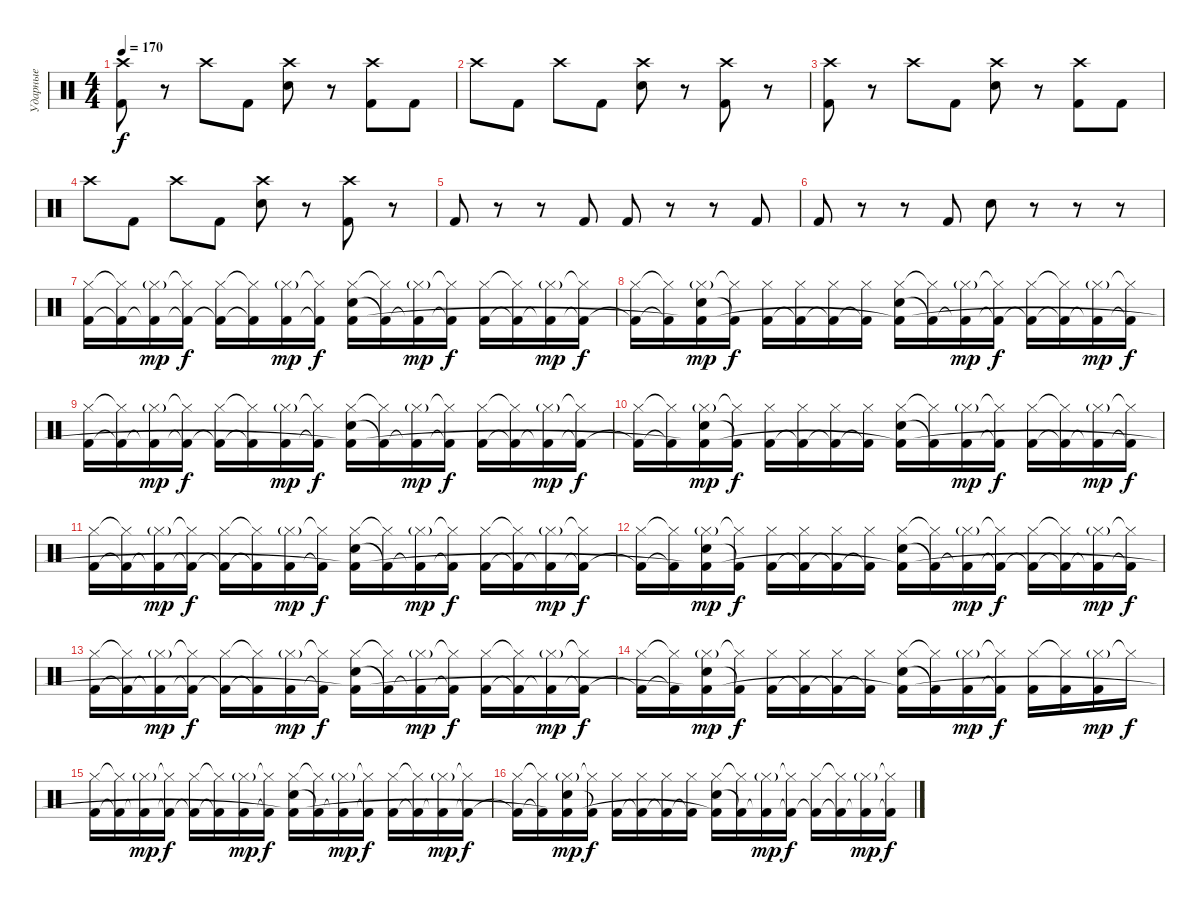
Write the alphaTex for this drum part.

\track ("Ударные" "Ударные") {instrument percussion}
\staff
\articulation defaults
\ts (4 4)
\tempo 170
\clef neutral
\ks c
("Crash high (hit)" "Kick (hit) 2").8{dy f} r.8 "Crash high (hit)".8 "Kick (hit) 2".8 ("Crash high (hit)" "Electric Snare (hit)").8 r.8 ("Crash high (hit)" "Kick (hit) 2").8 "Kick (hit) 2".8 |
"Crash high (hit)".8 "Kick (hit) 2".8 "Crash high (hit)".8 "Kick (hit) 2".8 ("Crash high (hit)" "Electric Snare (hit)").8 r.8 ("Crash high (hit)" "Kick (hit) 2").8 r.8 |
("Crash high (hit)" "Kick (hit) 2").8 r.8 "Crash high (hit)".8 "Kick (hit) 2".8 ("Crash high (hit)" "Electric Snare (hit)").8 r.8 ("Crash high (hit)" "Kick (hit) 2").8 "Kick (hit) 2".8 |
"Crash high (hit)".8 "Kick (hit) 2".8 "Crash high (hit)".8 "Kick (hit) 2".8 ("Crash high (hit)" "Electric Snare (hit)").8 r.8 ("Crash high (hit)" "Kick (hit) 2").8 r.8 |
"Kick (hit) 2".8 r.8 r.8 "Kick (hit) 2".8 "Kick (hit) 2".8 r.8 r.8 "Kick (hit) 2".8 |
"Kick (hit) 2".8 r.8 r.8 "Kick (hit) 2".8 "Electric Snare (hit)".8 r.8 r.8 r.8 |
("Hi-Hat (closed)" "Kick (hit) 2").16 ("Hi-Hat (closed)"{t} "Kick (hit) 2"{t}).16 ("Hi-Hat (closed)"{g} "Kick (hit) 2"{t}).16{dy mp} ("Hi-Hat (closed)"{t} "Kick (hit) 2"{t}).16{dy f} ("Hi-Hat (closed)" "Kick (hit) 2"{t}).16 ("Hi-Hat (closed)"{t} "Kick (hit) 2"{t}).16 ("Hi-Hat (closed)"{g} "Kick (hit) 2").16{dy mp} ("Hi-Hat (closed)"{t} "Kick (hit) 2"{t}).16{dy f} ("Hi-Hat (closed)" "Electric Snare (hit)" "Kick (hit) 2").16 ("Hi-Hat (closed)"{t} "Kick (hit) 2"{t}).16 ("Hi-Hat (closed)"{g} "Kick (hit) 2"{t}).16{dy mp} ("Hi-Hat (closed)"{t} "Kick (hit) 2"{t}).16{dy f} ("Hi-Hat (closed)" "Kick (hit) 2").16 ("Hi-Hat (closed)"{t} "Kick (hit) 2"{t}).16 ("Hi-Hat (closed)"{g} "Kick (hit) 2"{t}).16{dy mp} ("Hi-Hat (closed)"{t} "Kick (hit) 2"{t}).16{dy f} |
("Hi-Hat (closed)" "Kick (hit) 2"{t}).16 ("Hi-Hat (closed)"{t} "Kick (hit) 2"{t}).16 ("Hi-Hat (closed)"{g} "Electric Snare (hit)" "Kick (hit) 2"{t}).16{dy mp} ("Hi-Hat (closed)"{t} "Kick (hit) 2"{t}).16{dy f} ("Hi-Hat (closed)" "Kick (hit) 2").16 ("Hi-Hat (closed)" "Kick (hit) 2"{t}).16 ("Hi-Hat (closed)" "Kick (hit) 2"{t}).16 ("Hi-Hat (closed)" "Kick (hit) 2"{t}).16 ("Hi-Hat (closed)" "Electric Snare (hit)" "Kick (hit) 2"{t}).16 ("Hi-Hat (closed)"{t} "Kick (hit) 2"{t}).16 ("Hi-Hat (closed)"{g} "Kick (hit) 2"{t}).16{dy mp} ("Hi-Hat (closed)"{t} "Kick (hit) 2"{t}).16{dy f} ("Hi-Hat (closed)" "Kick (hit) 2"{t}).16 ("Hi-Hat (closed)"{t} "Kick (hit) 2"{t}).16 ("Hi-Hat (closed)"{g} "Kick (hit) 2"{t}).16{dy mp} ("Hi-Hat (closed)"{t} "Kick (hit) 2"{t}).16{dy f} |
("Hi-Hat (closed)" "Kick (hit) 2").16 ("Hi-Hat (closed)"{t} "Kick (hit) 2"{t}).16 ("Hi-Hat (closed)"{g} "Kick (hit) 2"{t}).16{dy mp} ("Hi-Hat (closed)"{t} "Kick (hit) 2"{t}).16{dy f} ("Hi-Hat (closed)" "Kick (hit) 2"{t}).16 ("Hi-Hat (closed)"{t} "Kick (hit) 2"{t}).16 ("Hi-Hat (closed)"{g} "Kick (hit) 2").16{dy mp} ("Hi-Hat (closed)"{t} "Kick (hit) 2"{t}).16{dy f} ("Hi-Hat (closed)" "Electric Snare (hit)" "Kick (hit) 2"{t}).16 ("Hi-Hat (closed)"{t} "Kick (hit) 2"{t}).16 ("Hi-Hat (closed)"{g} "Kick (hit) 2"{t}).16{dy mp} ("Hi-Hat (closed)"{t} "Kick (hit) 2"{t}).16{dy f} ("Hi-Hat (closed)" "Kick (hit) 2").16 ("Hi-Hat (closed)"{t} "Kick (hit) 2"{t}).16 ("Hi-Hat (closed)"{g} "Kick (hit) 2"{t}).16{dy mp} ("Hi-Hat (closed)"{t} "Kick (hit) 2"{t}).16{dy f} |
("Hi-Hat (closed)" "Kick (hit) 2"{t}).16 ("Hi-Hat (closed)"{t} "Kick (hit) 2"{t}).16 ("Hi-Hat (closed)"{g} "Electric Snare (hit)" "Kick (hit) 2"{t}).16{dy mp} ("Hi-Hat (closed)"{t} "Kick (hit) 2"{t}).16{dy f} ("Hi-Hat (closed)" "Kick (hit) 2").16 ("Hi-Hat (closed)" "Kick (hit) 2"{t}).16 ("Hi-Hat (closed)" "Kick (hit) 2"{t}).16 ("Hi-Hat (closed)" "Kick (hit) 2"{t}).16 ("Hi-Hat (closed)" "Electric Snare (hit)" "Kick (hit) 2"{t}).16 ("Hi-Hat (closed)"{t} "Kick (hit) 2"{t}).16 ("Hi-Hat (closed)"{g} "Kick (hit) 2").16{dy mp} ("Hi-Hat (closed)"{t} "Kick (hit) 2"{t}).16{dy f} ("Hi-Hat (closed)" "Kick (hit) 2").16 ("Hi-Hat (closed)"{t} "Kick (hit) 2"{t}).16 ("Hi-Hat (closed)"{g} "Kick (hit) 2"{t}).16{dy mp} ("Hi-Hat (closed)"{t} "Kick (hit) 2"{t}).16{dy f} |
("Hi-Hat (closed)" "Kick (hit) 2").16 ("Hi-Hat (closed)"{t} "Kick (hit) 2"{t}).16 ("Hi-Hat (closed)"{g} "Kick (hit) 2"{t}).16{dy mp} ("Hi-Hat (closed)"{t} "Kick (hit) 2"{t}).16{dy f} ("Hi-Hat (closed)" "Kick (hit) 2"{t}).16 ("Hi-Hat (closed)"{t} "Kick (hit) 2"{t}).16 ("Hi-Hat (closed)"{g} "Kick (hit) 2").16{dy mp} ("Hi-Hat (closed)"{t} "Kick (hit) 2"{t}).16{dy f} ("Hi-Hat (closed)" "Electric Snare (hit)" "Kick (hit) 2"{t}).16 ("Hi-Hat (closed)"{t} "Kick (hit) 2"{t}).16 ("Hi-Hat (closed)"{g} "Kick (hit) 2"{t}).16{dy mp} ("Hi-Hat (closed)"{t} "Kick (hit) 2"{t}).16{dy f} ("Hi-Hat (closed)" "Kick (hit) 2").16 ("Hi-Hat (closed)"{t} "Kick (hit) 2"{t}).16 ("Hi-Hat (closed)"{g} "Kick (hit) 2"{t}).16{dy mp} ("Hi-Hat (closed)"{t} "Kick (hit) 2"{t}).16{dy f} |
("Hi-Hat (closed)" "Kick (hit) 2"{t}).16 ("Hi-Hat (closed)"{t} "Kick (hit) 2"{t}).16 ("Hi-Hat (closed)"{g} "Electric Snare (hit)" "Kick (hit) 2"{t}).16{dy mp} ("Hi-Hat (closed)"{t} "Kick (hit) 2"{t}).16{dy f} ("Hi-Hat (closed)" "Kick (hit) 2").16 ("Hi-Hat (closed)" "Kick (hit) 2"{t}).16 ("Hi-Hat (closed)" "Kick (hit) 2"{t}).16 ("Hi-Hat (closed)" "Kick (hit) 2"{t}).16 ("Hi-Hat (closed)" "Electric Snare (hit)" "Kick (hit) 2"{t}).16 ("Hi-Hat (closed)"{t} "Kick (hit) 2"{t}).16 ("Hi-Hat (closed)"{g} "Kick (hit) 2"{t}).16{dy mp} ("Hi-Hat (closed)"{t} "Kick (hit) 2"{t}).16{dy f} ("Hi-Hat (closed)" "Kick (hit) 2"{t}).16 ("Hi-Hat (closed)"{t} "Kick (hit) 2"{t}).16 ("Hi-Hat (closed)"{g} "Kick (hit) 2"{t}).16{dy mp} ("Hi-Hat (closed)"{t} "Kick (hit) 2"{t}).16{dy f} |
("Hi-Hat (closed)" "Kick (hit) 2").16 ("Hi-Hat (closed)"{t} "Kick (hit) 2"{t}).16 ("Hi-Hat (closed)"{g} "Kick (hit) 2"{t}).16{dy mp} ("Hi-Hat (closed)"{t} "Kick (hit) 2"{t}).16{dy f} ("Hi-Hat (closed)" "Kick (hit) 2"{t}).16 ("Hi-Hat (closed)"{t} "Kick (hit) 2"{t}).16 ("Hi-Hat (closed)"{g} "Kick (hit) 2").16{dy mp} ("Hi-Hat (closed)"{t} "Kick (hit) 2"{t}).16{dy f} ("Hi-Hat (closed)" "Electric Snare (hit)" "Kick (hit) 2"{t}).16 ("Hi-Hat (closed)"{t} "Kick (hit) 2"{t}).16 ("Hi-Hat (closed)"{g} "Kick (hit) 2"{t}).16{dy mp} ("Hi-Hat (closed)"{t} "Kick (hit) 2"{t}).16{dy f} ("Hi-Hat (closed)" "Kick (hit) 2").16 ("Hi-Hat (closed)"{t} "Kick (hit) 2"{t}).16 ("Hi-Hat (closed)"{g} "Kick (hit) 2"{t}).16{dy mp} ("Hi-Hat (closed)"{t} "Kick (hit) 2"{t}).16{dy f} |
("Hi-Hat (closed)" "Kick (hit) 2"{t}).16 ("Hi-Hat (closed)"{t} "Kick (hit) 2"{t}).16 ("Hi-Hat (closed)"{g} "Electric Snare (hit)" "Kick (hit) 2"{t}).16{dy mp} ("Hi-Hat (closed)"{t} "Kick (hit) 2"{t}).16{dy f} ("Hi-Hat (closed)" "Kick (hit) 2").16 ("Hi-Hat (closed)" "Kick (hit) 2"{t}).16 ("Hi-Hat (closed)" "Kick (hit) 2"{t}).16 ("Hi-Hat (closed)" "Kick (hit) 2"{t}).16 ("Hi-Hat (closed)" "Electric Snare (hit)" "Kick (hit) 2"{t}).16 ("Hi-Hat (closed)"{t} "Kick (hit) 2"{t}).16 ("Hi-Hat (closed)"{g} "Kick (hit) 2").16{dy mp} ("Hi-Hat (closed)"{t} "Kick (hit) 2"{t}).16{dy f} ("Hi-Hat (closed)" "Kick (hit) 2").16 ("Hi-Hat (closed)"{t} "Kick (hit) 2").16 ("Hi-Hat (closed)"{g} "Kick (hit) 2").16{dy mp} "Hi-Hat (closed)"{t}.16{dy f} |
("Hi-Hat (closed)" "Kick (hit) 2").16 ("Hi-Hat (closed)"{t} "Kick (hit) 2"{t}).16 ("Hi-Hat (closed)"{g} "Kick (hit) 2"{t}).16{dy mp} ("Hi-Hat (closed)"{t} "Kick (hit) 2"{t}).16{dy f} ("Hi-Hat (closed)" "Kick (hit) 2"{t}).16 ("Hi-Hat (closed)"{t} "Kick (hit) 2"{t}).16 ("Hi-Hat (closed)"{g} "Kick (hit) 2").16{dy mp} ("Hi-Hat (closed)"{t} "Kick (hit) 2"{t}).16{dy f} ("Hi-Hat (closed)" "Electric Snare (hit)" "Kick (hit) 2"{t}).16 ("Hi-Hat (closed)"{t} "Kick (hit) 2"{t}).16 ("Hi-Hat (closed)"{g} "Kick (hit) 2"{t}).16{dy mp} ("Hi-Hat (closed)"{t} "Kick (hit) 2"{t}).16{dy f} ("Hi-Hat (closed)" "Kick (hit) 2").16 ("Hi-Hat (closed)"{t} "Kick (hit) 2"{t}).16 ("Hi-Hat (closed)"{g} "Kick (hit) 2"{t}).16{dy mp} ("Hi-Hat (closed)"{t} "Kick (hit) 2"{t}).16{dy f} |
("Hi-Hat (closed)" "Kick (hit) 2"{t}).16 ("Hi-Hat (closed)"{t} "Kick (hit) 2"{t}).16 ("Hi-Hat (closed)"{g} "Electric Snare (hit)" "Kick (hit) 2"{t}).16{dy mp} ("Hi-Hat (closed)"{t} "Kick (hit) 2"{t}).16{dy f} ("Hi-Hat (closed)" "Kick (hit) 2").16 ("Hi-Hat (closed)" "Kick (hit) 2"{t}).16 ("Hi-Hat (closed)" "Kick (hit) 2"{t}).16 ("Hi-Hat (closed)" "Kick (hit) 2"{t}).16 ("Hi-Hat (closed)" "Electric Snare (hit)" "Kick (hit) 2"{t}).16 ("Hi-Hat (closed)"{t} "Kick (hit) 2"{t}).16 ("Hi-Hat (closed)"{g} "Kick (hit) 2"{t}).16{dy mp} ("Hi-Hat (closed)"{t} "Kick (hit) 2"{t}).16{dy f} ("Hi-Hat (closed)" "Kick (hit) 2"{t}).16 ("Hi-Hat (closed)"{t} "Kick (hit) 2"{t}).16 ("Hi-Hat (closed)"{g} "Kick (hit) 2"{t}).16{dy mp} ("Hi-Hat (closed)"{t} "Kick (hit) 2"{t}).16{dy f}
